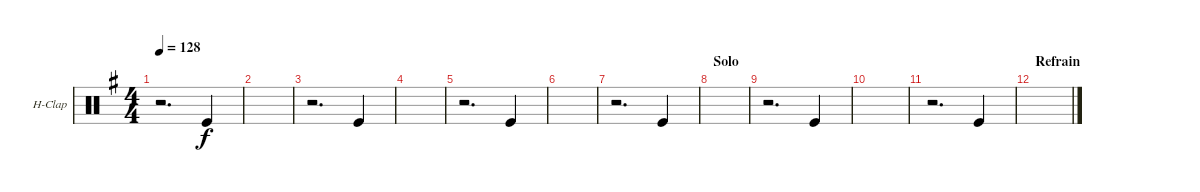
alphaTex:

\bracketExtendMode groupsimilarinstruments
\firstSystemTrackNameOrientation horizontal
\otherSystemsTrackNameOrientation horizontal
\track ("Hand Clap" "H-Clap") {multiBarRest instrument percussion}
\staff {score}
\articulation defaults
\ts (4 4)
\tempo 128
\clef neutral
\ks eminor
r.2{d dy f} "Kick (hit)".4 |
|
r.2{d} "Kick (hit)".4 |
|
r.2{d} "Kick (hit)".4 |
|
r.2{d} "Kick (hit)".4 |
\section ("" "Solo")
|
r.2{d} "Kick (hit)".4 |
|
r.2{d} "Kick (hit)".4 |
\section ("" "Refrain")
